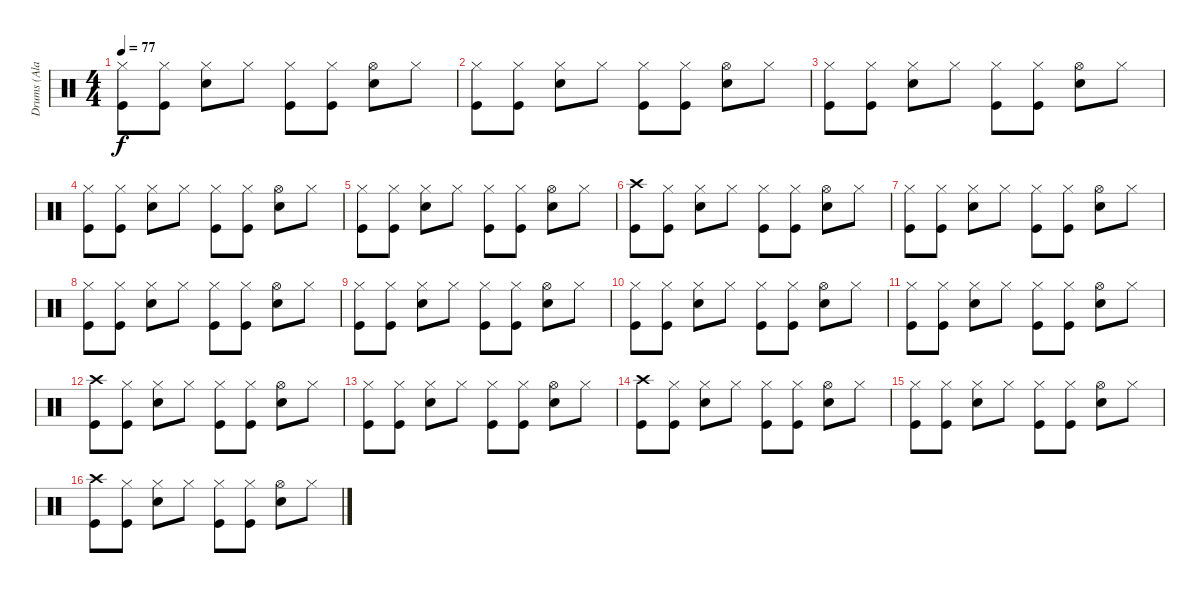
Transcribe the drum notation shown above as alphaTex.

\track ("Drums (Alan White)" "Drums (Ala") {instrument percussion}
\staff {score}
\articulation defaults
\ts (4 4)
\tempo 77
\clef neutral
\ks c
("Hi-Hat (closed)" "Kick (hit)").8{dy f} ("Hi-Hat (closed)" "Kick (hit)").8 ("Hi-Hat (closed)" "Snare (hit) 2").8 "Hi-Hat (closed)".8 ("Hi-Hat (closed)" "Kick (hit)").8 ("Hi-Hat (closed)" "Kick (hit)").8 ("Hi-Hat (open)" "Snare (hit) 2").8 "Hi-Hat (closed)".8 |
("Hi-Hat (closed)" "Kick (hit)").8 ("Hi-Hat (closed)" "Kick (hit)").8 ("Hi-Hat (closed)" "Snare (hit) 2").8 "Hi-Hat (closed)".8 ("Hi-Hat (closed)" "Kick (hit)").8 ("Hi-Hat (closed)" "Kick (hit)").8 ("Hi-Hat (open)" "Snare (hit) 2").8 "Hi-Hat (closed)".8 |
("Hi-Hat (closed)" "Kick (hit)").8 ("Hi-Hat (closed)" "Kick (hit)").8 ("Hi-Hat (closed)" "Snare (hit) 2").8 "Hi-Hat (closed)".8 ("Hi-Hat (closed)" "Kick (hit)").8 ("Hi-Hat (closed)" "Kick (hit)").8 ("Hi-Hat (open)" "Snare (hit) 2").8 "Hi-Hat (closed)".8 |
("Hi-Hat (closed)" "Kick (hit)").8 ("Hi-Hat (closed)" "Kick (hit)").8 ("Hi-Hat (closed)" "Snare (hit) 2").8 "Hi-Hat (closed)".8 ("Hi-Hat (closed)" "Kick (hit)").8 ("Hi-Hat (closed)" "Kick (hit)").8 ("Hi-Hat (open)" "Snare (hit) 2").8 "Hi-Hat (closed)".8 |
("Hi-Hat (closed)" "Kick (hit)").8 ("Hi-Hat (closed)" "Kick (hit)").8 ("Hi-Hat (closed)" "Snare (hit) 2").8 "Hi-Hat (closed)".8 ("Hi-Hat (closed)" "Kick (hit)").8 ("Hi-Hat (closed)" "Kick (hit)").8 ("Hi-Hat (open)" "Snare (hit) 2").8 "Hi-Hat (closed)".8 |
("Crash high (hit)" "Kick (hit)").8 ("Hi-Hat (closed)" "Kick (hit)").8 ("Hi-Hat (closed)" "Snare (hit) 2").8 "Hi-Hat (closed)".8 ("Hi-Hat (closed)" "Kick (hit)").8 ("Hi-Hat (closed)" "Kick (hit)").8 ("Hi-Hat (open)" "Snare (hit) 2").8 "Hi-Hat (closed)".8 |
("Hi-Hat (closed)" "Kick (hit)").8 ("Hi-Hat (closed)" "Kick (hit)").8 ("Hi-Hat (closed)" "Snare (hit) 2").8 "Hi-Hat (closed)".8 ("Hi-Hat (closed)" "Kick (hit)").8 ("Hi-Hat (closed)" "Kick (hit)").8 ("Hi-Hat (open)" "Snare (hit) 2").8 "Hi-Hat (closed)".8 |
("Hi-Hat (closed)" "Kick (hit)").8 ("Hi-Hat (closed)" "Kick (hit)").8 ("Hi-Hat (closed)" "Snare (hit) 2").8 "Hi-Hat (closed)".8 ("Hi-Hat (closed)" "Kick (hit)").8 ("Hi-Hat (closed)" "Kick (hit)").8 ("Hi-Hat (open)" "Snare (hit) 2").8 "Hi-Hat (closed)".8 |
("Hi-Hat (closed)" "Kick (hit)").8 ("Hi-Hat (closed)" "Kick (hit)").8 ("Hi-Hat (closed)" "Snare (hit) 2").8 "Hi-Hat (closed)".8 ("Hi-Hat (closed)" "Kick (hit)").8 ("Hi-Hat (closed)" "Kick (hit)").8 ("Hi-Hat (open)" "Snare (hit) 2").8 "Hi-Hat (closed)".8 |
("Hi-Hat (closed)" "Kick (hit)").8 ("Hi-Hat (closed)" "Kick (hit)").8 ("Hi-Hat (closed)" "Snare (hit) 2").8 "Hi-Hat (closed)".8 ("Hi-Hat (closed)" "Kick (hit)").8 ("Hi-Hat (closed)" "Kick (hit)").8 ("Hi-Hat (open)" "Snare (hit) 2").8 "Hi-Hat (closed)".8 |
("Hi-Hat (closed)" "Kick (hit)").8 ("Hi-Hat (closed)" "Kick (hit)").8 ("Hi-Hat (closed)" "Snare (hit) 2").8 "Hi-Hat (closed)".8 ("Hi-Hat (closed)" "Kick (hit)").8 ("Hi-Hat (closed)" "Kick (hit)").8 ("Hi-Hat (open)" "Snare (hit) 2").8 "Hi-Hat (closed)".8 |
("Crash high (hit)" "Kick (hit)").8 ("Hi-Hat (closed)" "Kick (hit)").8 ("Hi-Hat (closed)" "Snare (hit) 2").8 "Hi-Hat (closed)".8 ("Hi-Hat (closed)" "Kick (hit)").8 ("Hi-Hat (closed)" "Kick (hit)").8 ("Hi-Hat (open)" "Snare (hit) 2").8 "Hi-Hat (closed)".8 |
("Hi-Hat (closed)" "Kick (hit)").8 ("Hi-Hat (closed)" "Kick (hit)").8 ("Hi-Hat (closed)" "Snare (hit) 2").8 "Hi-Hat (closed)".8 ("Hi-Hat (closed)" "Kick (hit)").8 ("Hi-Hat (closed)" "Kick (hit)").8 ("Hi-Hat (open)" "Snare (hit) 2").8 "Hi-Hat (closed)".8 |
("Crash high (hit)" "Kick (hit)").8 ("Hi-Hat (closed)" "Kick (hit)").8 ("Hi-Hat (closed)" "Snare (hit) 2").8 "Hi-Hat (closed)".8 ("Hi-Hat (closed)" "Kick (hit)").8 ("Hi-Hat (closed)" "Kick (hit)").8 ("Hi-Hat (open)" "Snare (hit) 2").8 "Hi-Hat (closed)".8 |
("Hi-Hat (closed)" "Kick (hit)").8 ("Hi-Hat (closed)" "Kick (hit)").8 ("Hi-Hat (closed)" "Snare (hit) 2").8 "Hi-Hat (closed)".8 ("Hi-Hat (closed)" "Kick (hit)").8 ("Hi-Hat (closed)" "Kick (hit)").8 ("Hi-Hat (open)" "Snare (hit) 2").8 "Hi-Hat (closed)".8 |
("Crash high (hit)" "Kick (hit)").8 ("Hi-Hat (closed)" "Kick (hit)").8 ("Hi-Hat (closed)" "Snare (hit) 2").8 "Hi-Hat (closed)".8 ("Hi-Hat (closed)" "Kick (hit)").8 ("Hi-Hat (closed)" "Kick (hit)").8 ("Hi-Hat (open)" "Snare (hit) 2").8 "Hi-Hat (closed)".8
